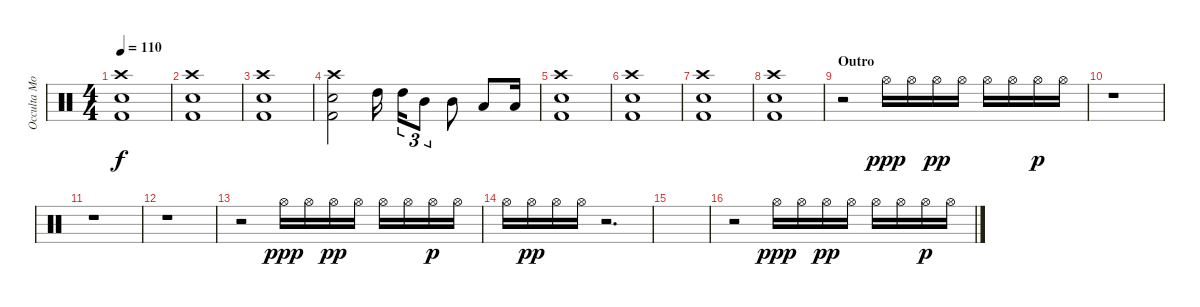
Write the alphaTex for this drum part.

\track ("Occulta Mors (Drums)" "Occulta Mo") {instrument percussion}
\staff {score}
\articulation defaults
\ts (4 4)
\tempo 110
\clef neutral
\ks c
("Crash high (hit)" "Snare (hit) 2" "Kick (hit) 2").1{dy f} |
("Crash high (hit)" "Snare (hit) 2" "Kick (hit) 2").1 |
("Crash high (hit)" "Snare (hit) 2" "Kick (hit) 2").1 |
("Crash high (hit)" "Snare (hit) 2" "Kick (hit) 2").2 "High Tom (hit)".16 "High Tom (hit)".16{tu (3 2)} "Mid Tom (hit)".8{tu (3 2)} "Mid Tom (hit)".8 "Low Tom (hit)".8 "Low Tom (hit)".16 |
("Crash high (hit)" "Snare (hit) 2" "Kick (hit) 2").1 |
("Crash high (hit)" "Snare (hit) 2" "Kick (hit) 2").1 |
("Crash high (hit)" "Snare (hit) 2" "Kick (hit) 2").1 |
("Crash high (hit)" "Snare (hit) 2" "Kick (hit) 2").1 |
\section ("" "Outro")
r.2 "Hi-Hat (open)".16{dy ppp} "Hi-Hat (open)".16 "Hi-Hat (open)".16{dy pp} "Hi-Hat (open)".16 "Hi-Hat (open)".16 "Hi-Hat (open)".16 "Hi-Hat (open)".16{dy p} "Hi-Hat (open)".16 |
r.1 |
r.1 |
r.1 |
r.2 "Hi-Hat (open)".16{dy ppp} "Hi-Hat (open)".16 "Hi-Hat (open)".16{dy pp} "Hi-Hat (open)".16 "Hi-Hat (open)".16 "Hi-Hat (open)".16 "Hi-Hat (open)".16{dy p} "Hi-Hat (open)".16 |
"Hi-Hat (open)".16 "Hi-Hat (open)".16{dy pp} "Hi-Hat (open)".16 "Hi-Hat (open)".16 r.2{d} |
|
r.2 "Hi-Hat (open)".16{dy ppp} "Hi-Hat (open)".16 "Hi-Hat (open)".16{dy pp} "Hi-Hat (open)".16 "Hi-Hat (open)".16 "Hi-Hat (open)".16 "Hi-Hat (open)".16{dy p} "Hi-Hat (open)".16
